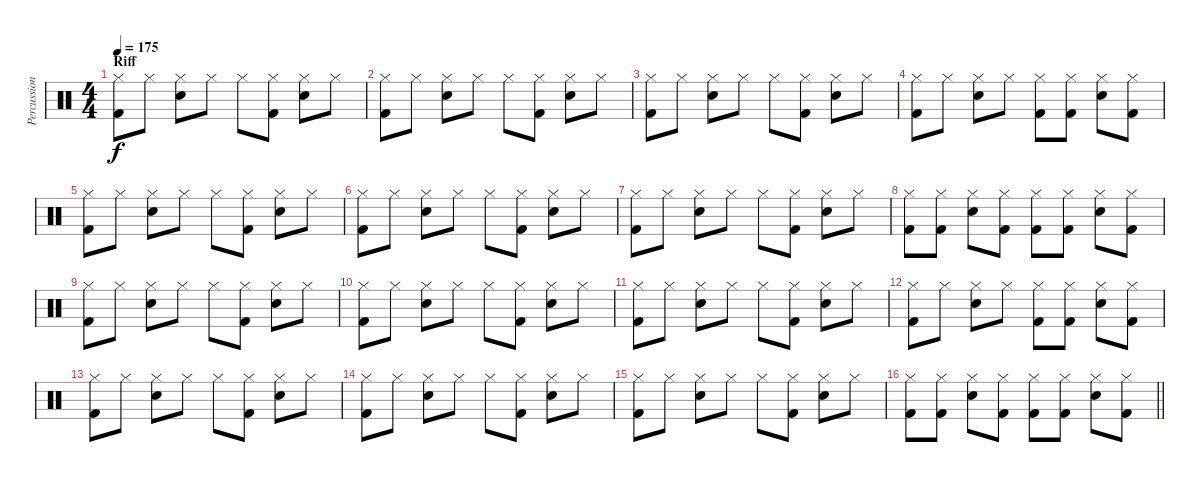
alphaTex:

\track ("Percussion" "Percussion") {instrument percussion}
\staff {score}
\articulation defaults
\ts (4 4)
\section ("" "Riff")
\tempo 175
\clef neutral
\ks c
("Hi-Hat (closed)" "Kick (hit) 2").8{dy f} "Hi-Hat (closed)".8 ("Hi-Hat (closed)" "Snare (hit) 2").8 "Hi-Hat (closed)".8 "Hi-Hat (closed)".8 ("Hi-Hat (closed)" "Kick (hit) 2").8 ("Hi-Hat (closed)" "Snare (hit) 2").8 "Hi-Hat (closed)".8 |
("Hi-Hat (closed)" "Kick (hit) 2").8 "Hi-Hat (closed)".8 ("Hi-Hat (closed)" "Snare (hit) 2").8 "Hi-Hat (closed)".8 "Hi-Hat (closed)".8 ("Hi-Hat (closed)" "Kick (hit) 2").8 ("Hi-Hat (closed)" "Snare (hit) 2").8 "Hi-Hat (closed)".8 |
("Hi-Hat (closed)" "Kick (hit) 2").8 "Hi-Hat (closed)".8 ("Hi-Hat (closed)" "Snare (hit) 2").8 "Hi-Hat (closed)".8 "Hi-Hat (closed)".8 ("Hi-Hat (closed)" "Kick (hit) 2").8 ("Hi-Hat (closed)" "Snare (hit) 2").8 "Hi-Hat (closed)".8 |
("Hi-Hat (closed)" "Kick (hit) 2").8 "Hi-Hat (closed)".8 ("Hi-Hat (closed)" "Snare (hit) 2").8 "Hi-Hat (closed)".8 ("Hi-Hat (closed)" "Kick (hit) 2").8 ("Hi-Hat (closed)" "Kick (hit) 2").8 ("Hi-Hat (closed)" "Snare (hit) 2").8 ("Hi-Hat (closed)" "Kick (hit) 2").8 |
("Hi-Hat (closed)" "Kick (hit) 2").8 "Hi-Hat (closed)".8 ("Hi-Hat (closed)" "Snare (hit) 2").8 "Hi-Hat (closed)".8 "Hi-Hat (closed)".8 ("Hi-Hat (closed)" "Kick (hit) 2").8 ("Hi-Hat (closed)" "Snare (hit) 2").8 "Hi-Hat (closed)".8 |
("Hi-Hat (closed)" "Kick (hit) 2").8 "Hi-Hat (closed)".8 ("Hi-Hat (closed)" "Snare (hit) 2").8 "Hi-Hat (closed)".8 "Hi-Hat (closed)".8 ("Hi-Hat (closed)" "Kick (hit) 2").8 ("Hi-Hat (closed)" "Snare (hit) 2").8 "Hi-Hat (closed)".8 |
("Hi-Hat (closed)" "Kick (hit) 2").8 "Hi-Hat (closed)".8 ("Hi-Hat (closed)" "Snare (hit) 2").8 "Hi-Hat (closed)".8 "Hi-Hat (closed)".8 ("Hi-Hat (closed)" "Kick (hit) 2").8 ("Hi-Hat (closed)" "Snare (hit) 2").8 "Hi-Hat (closed)".8 |
("Hi-Hat (closed)" "Kick (hit) 2").8 ("Hi-Hat (closed)" "Kick (hit) 2").8 ("Hi-Hat (closed)" "Snare (hit) 2").8 ("Hi-Hat (closed)" "Kick (hit) 2").8 ("Hi-Hat (closed)" "Kick (hit) 2").8 ("Hi-Hat (closed)" "Kick (hit) 2").8 ("Hi-Hat (closed)" "Snare (hit) 2").8 ("Hi-Hat (closed)" "Kick (hit) 2").8 |
("Hi-Hat (closed)" "Kick (hit) 2").8 "Hi-Hat (closed)".8 ("Hi-Hat (closed)" "Snare (hit) 2").8 "Hi-Hat (closed)".8 "Hi-Hat (closed)".8 ("Hi-Hat (closed)" "Kick (hit) 2").8 ("Hi-Hat (closed)" "Snare (hit) 2").8 "Hi-Hat (closed)".8 |
("Hi-Hat (closed)" "Kick (hit) 2").8 "Hi-Hat (closed)".8 ("Hi-Hat (closed)" "Snare (hit) 2").8 "Hi-Hat (closed)".8 "Hi-Hat (closed)".8 ("Hi-Hat (closed)" "Kick (hit) 2").8 ("Hi-Hat (closed)" "Snare (hit) 2").8 "Hi-Hat (closed)".8 |
("Hi-Hat (closed)" "Kick (hit) 2").8 "Hi-Hat (closed)".8 ("Hi-Hat (closed)" "Snare (hit) 2").8 "Hi-Hat (closed)".8 "Hi-Hat (closed)".8 ("Hi-Hat (closed)" "Kick (hit) 2").8 ("Hi-Hat (closed)" "Snare (hit) 2").8 "Hi-Hat (closed)".8 |
("Hi-Hat (closed)" "Kick (hit) 2").8 "Hi-Hat (closed)".8 ("Hi-Hat (closed)" "Snare (hit) 2").8 "Hi-Hat (closed)".8 ("Hi-Hat (closed)" "Kick (hit) 2").8 ("Hi-Hat (closed)" "Kick (hit) 2").8 ("Hi-Hat (closed)" "Snare (hit) 2").8 ("Hi-Hat (closed)" "Kick (hit) 2").8 |
("Hi-Hat (closed)" "Kick (hit) 2").8 "Hi-Hat (closed)".8 ("Hi-Hat (closed)" "Snare (hit) 2").8 "Hi-Hat (closed)".8 "Hi-Hat (closed)".8 ("Hi-Hat (closed)" "Kick (hit) 2").8 ("Hi-Hat (closed)" "Snare (hit) 2").8 "Hi-Hat (closed)".8 |
("Hi-Hat (closed)" "Kick (hit) 2").8 "Hi-Hat (closed)".8 ("Hi-Hat (closed)" "Snare (hit) 2").8 "Hi-Hat (closed)".8 "Hi-Hat (closed)".8 ("Hi-Hat (closed)" "Kick (hit) 2").8 ("Hi-Hat (closed)" "Snare (hit) 2").8 "Hi-Hat (closed)".8 |
("Hi-Hat (closed)" "Kick (hit) 2").8 "Hi-Hat (closed)".8 ("Hi-Hat (closed)" "Snare (hit) 2").8 "Hi-Hat (closed)".8 "Hi-Hat (closed)".8 ("Hi-Hat (closed)" "Kick (hit) 2").8 ("Hi-Hat (closed)" "Snare (hit) 2").8 "Hi-Hat (closed)".8 |
\barLineRight lightlight
("Hi-Hat (closed)" "Kick (hit) 2").8 ("Hi-Hat (closed)" "Kick (hit) 2").8 ("Hi-Hat (closed)" "Snare (hit) 2").8 ("Hi-Hat (closed)" "Kick (hit) 2").8 ("Hi-Hat (closed)" "Kick (hit) 2").8 ("Hi-Hat (closed)" "Kick (hit) 2").8 ("Hi-Hat (closed)" "Snare (hit) 2").8 ("Hi-Hat (closed)" "Kick (hit) 2").8
